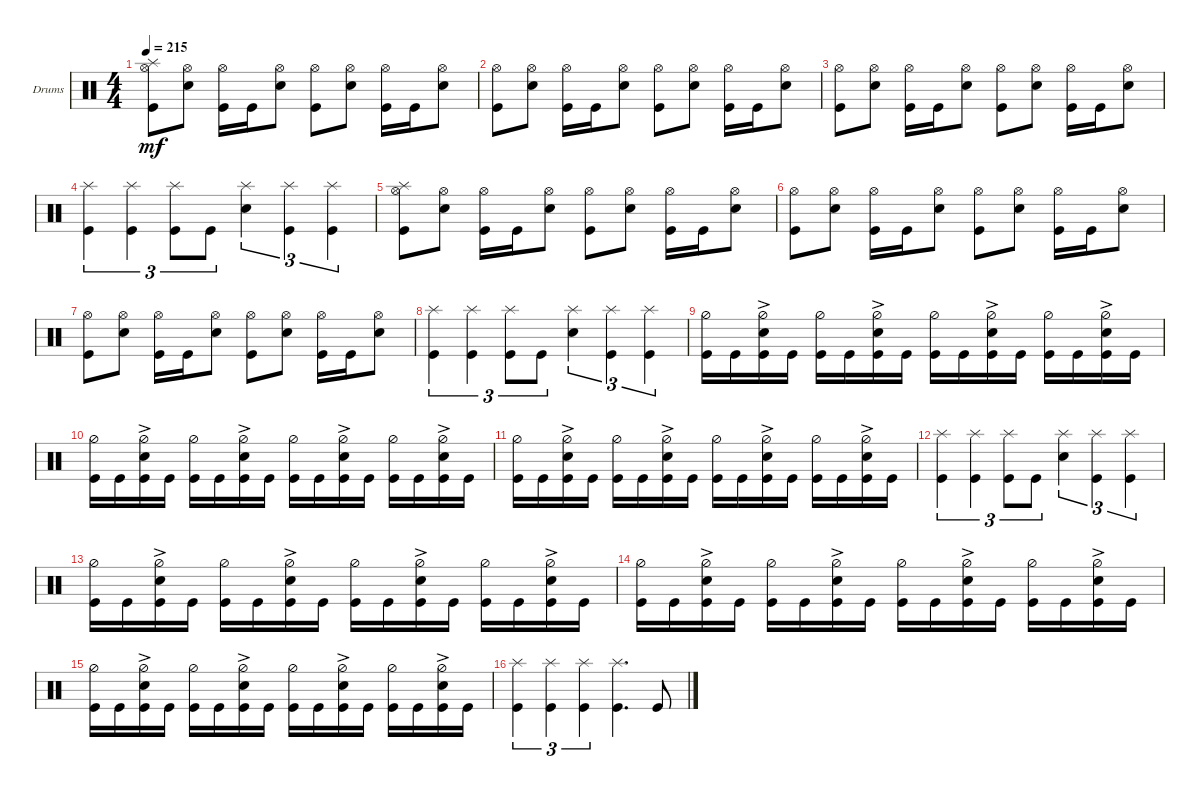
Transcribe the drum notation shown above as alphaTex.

\bracketExtendMode groupsimilarinstruments
\firstSystemTrackNameOrientation horizontal
\otherSystemsTrackNameOrientation horizontal
\track ("Drumkit" "Drums") {instrument percussion}
\staff {score}
\articulation defaults
\ts (4 4)
\tempo 215
\clef neutral
\ks c
("Kick (hit)" "Hi-Hat (open)" "Splash (hit)").8{dy mf} ("Snare (hit) 2" "Hi-Hat (open)").8 ("Kick (hit)" "Hi-Hat (open)").16 "Kick (hit)".16 ("Snare (hit) 2" "Hi-Hat (open)").8 ("Kick (hit)" "Hi-Hat (open)").8 ("Snare (hit) 2" "Hi-Hat (open)").8 ("Kick (hit)" "Hi-Hat (open)").16 "Kick (hit)".16 ("Snare (hit) 2" "Hi-Hat (open)").8 |
("Kick (hit)" "Hi-Hat (open)").8 ("Snare (hit) 2" "Hi-Hat (open)").8 ("Kick (hit)" "Hi-Hat (open)").16 "Kick (hit)".16 ("Snare (hit) 2" "Hi-Hat (open)").8 ("Kick (hit)" "Hi-Hat (open)").8 ("Snare (hit) 2" "Hi-Hat (open)").8 ("Kick (hit)" "Hi-Hat (open)").16 "Kick (hit)".16 ("Snare (hit) 2" "Hi-Hat (open)").8 |
("Kick (hit)" "Hi-Hat (open)").8 ("Snare (hit) 2" "Hi-Hat (open)").8 ("Kick (hit)" "Hi-Hat (open)").16 "Kick (hit)".16 ("Snare (hit) 2" "Hi-Hat (open)").8 ("Kick (hit)" "Hi-Hat (open)").8 ("Snare (hit) 2" "Hi-Hat (open)").8 ("Kick (hit)" "Hi-Hat (open)").16 "Kick (hit)".16 ("Snare (hit) 2" "Hi-Hat (open)").8 |
("Kick (hit)" "Splash (hit)").4{tu (3 2)} ("Kick (hit)" "Splash (hit)").4{tu (3 2)} ("Kick (hit)" "Splash (hit)").8{tu (3 2)} "Kick (hit)".8{tu (3 2)} ("Snare (hit) 2" "Splash (hit)").4{tu (3 2)} ("Kick (hit)" "Splash (hit)").4{tu (3 2)} ("Kick (hit)" "Splash (hit)").4{tu (3 2)} |
("Kick (hit)" "Hi-Hat (open)" "Splash (hit)").8 ("Snare (hit) 2" "Hi-Hat (open)").8 ("Kick (hit)" "Hi-Hat (open)").16 "Kick (hit)".16 ("Snare (hit) 2" "Hi-Hat (open)").8 ("Kick (hit)" "Hi-Hat (open)").8 ("Snare (hit) 2" "Hi-Hat (open)").8 ("Kick (hit)" "Hi-Hat (open)").16 "Kick (hit)".16 ("Snare (hit) 2" "Hi-Hat (open)").8 |
("Kick (hit)" "Hi-Hat (open)").8 ("Snare (hit) 2" "Hi-Hat (open)").8 ("Kick (hit)" "Hi-Hat (open)").16 "Kick (hit)".16 ("Snare (hit) 2" "Hi-Hat (open)").8 ("Kick (hit)" "Hi-Hat (open)").8 ("Snare (hit) 2" "Hi-Hat (open)").8 ("Kick (hit)" "Hi-Hat (open)").16 "Kick (hit)".16 ("Snare (hit) 2" "Hi-Hat (open)").8 |
("Kick (hit)" "Hi-Hat (open)").8 ("Snare (hit) 2" "Hi-Hat (open)").8 ("Kick (hit)" "Hi-Hat (open)").16 "Kick (hit)".16 ("Snare (hit) 2" "Hi-Hat (open)").8 ("Kick (hit)" "Hi-Hat (open)").8 ("Snare (hit) 2" "Hi-Hat (open)").8 ("Kick (hit)" "Hi-Hat (open)").16 "Kick (hit)".16 ("Snare (hit) 2" "Hi-Hat (open)").8 |
("Kick (hit)" "Splash (hit)").4{tu (3 2)} ("Kick (hit)" "Splash (hit)").4{tu (3 2)} ("Kick (hit)" "Splash (hit)").8{tu (3 2)} "Kick (hit)".8{tu (3 2)} ("Snare (hit) 2" "Splash (hit)").4{tu (3 2)} ("Kick (hit)" "Splash (hit)").4{tu (3 2)} ("Kick (hit)" "Splash (hit)").4{tu (3 2)} |
("Kick (hit)" "Hi-Hat (half)").16 "Kick (hit)".16 ("Snare (hit) 2"{ac} "Kick (hit)" "Hi-Hat (half)").16 "Kick (hit)".16 ("Kick (hit)" "Hi-Hat (half)").16 "Kick (hit)".16 ("Snare (hit) 2"{ac} "Kick (hit)" "Hi-Hat (half)").16 "Kick (hit)".16 ("Kick (hit)" "Hi-Hat (half)").16 "Kick (hit)".16 ("Snare (hit) 2"{ac} "Kick (hit)" "Hi-Hat (half)").16 "Kick (hit)".16 ("Kick (hit)" "Hi-Hat (half)").16 "Kick (hit)".16 ("Snare (hit) 2"{ac} "Kick (hit)" "Hi-Hat (half)").16 "Kick (hit)".16 |
("Kick (hit)" "Hi-Hat (half)").16 "Kick (hit)".16 ("Snare (hit) 2"{ac} "Kick (hit)" "Hi-Hat (half)").16 "Kick (hit)".16 ("Kick (hit)" "Hi-Hat (half)").16 "Kick (hit)".16 ("Snare (hit) 2"{ac} "Kick (hit)" "Hi-Hat (half)").16 "Kick (hit)".16 ("Kick (hit)" "Hi-Hat (half)").16 "Kick (hit)".16 ("Snare (hit) 2"{ac} "Kick (hit)" "Hi-Hat (half)").16 "Kick (hit)".16 ("Kick (hit)" "Hi-Hat (half)").16 "Kick (hit)".16 ("Snare (hit) 2"{ac} "Kick (hit)" "Hi-Hat (half)").16 "Kick (hit)".16 |
("Kick (hit)" "Hi-Hat (half)").16 "Kick (hit)".16 ("Snare (hit) 2"{ac} "Kick (hit)" "Hi-Hat (half)").16 "Kick (hit)".16 ("Kick (hit)" "Hi-Hat (half)").16 "Kick (hit)".16 ("Snare (hit) 2"{ac} "Kick (hit)" "Hi-Hat (half)").16 "Kick (hit)".16 ("Kick (hit)" "Hi-Hat (half)").16 "Kick (hit)".16 ("Snare (hit) 2"{ac} "Kick (hit)" "Hi-Hat (half)").16 "Kick (hit)".16 ("Kick (hit)" "Hi-Hat (half)").16 "Kick (hit)".16 ("Snare (hit) 2"{ac} "Kick (hit)" "Hi-Hat (half)").16 "Kick (hit)".16 |
("Kick (hit)" "Splash (hit)").4{tu (3 2)} ("Kick (hit)" "Splash (hit)").4{tu (3 2)} ("Kick (hit)" "Splash (hit)").8{tu (3 2)} "Kick (hit)".8{tu (3 2)} ("Snare (hit) 2" "Splash (hit)").4{tu (3 2)} ("Kick (hit)" "Splash (hit)").4{tu (3 2)} ("Kick (hit)" "Splash (hit)").4{tu (3 2)} |
("Kick (hit)" "Hi-Hat (half)").16 "Kick (hit)".16 ("Snare (hit) 2"{ac} "Kick (hit)" "Hi-Hat (half)").16 "Kick (hit)".16 ("Kick (hit)" "Hi-Hat (half)").16 "Kick (hit)".16 ("Snare (hit) 2"{ac} "Kick (hit)" "Hi-Hat (half)").16 "Kick (hit)".16 ("Kick (hit)" "Hi-Hat (half)").16 "Kick (hit)".16 ("Snare (hit) 2"{ac} "Kick (hit)" "Hi-Hat (half)").16 "Kick (hit)".16 ("Kick (hit)" "Hi-Hat (half)").16 "Kick (hit)".16 ("Snare (hit) 2"{ac} "Kick (hit)" "Hi-Hat (half)").16 "Kick (hit)".16 |
("Kick (hit)" "Hi-Hat (half)").16 "Kick (hit)".16 ("Snare (hit) 2"{ac} "Kick (hit)" "Hi-Hat (half)").16 "Kick (hit)".16 ("Kick (hit)" "Hi-Hat (half)").16 "Kick (hit)".16 ("Snare (hit) 2"{ac} "Kick (hit)" "Hi-Hat (half)").16 "Kick (hit)".16 ("Kick (hit)" "Hi-Hat (half)").16 "Kick (hit)".16 ("Snare (hit) 2"{ac} "Kick (hit)" "Hi-Hat (half)").16 "Kick (hit)".16 ("Kick (hit)" "Hi-Hat (half)").16 "Kick (hit)".16 ("Snare (hit) 2"{ac} "Kick (hit)" "Hi-Hat (half)").16 "Kick (hit)".16 |
("Kick (hit)" "Hi-Hat (half)").16 "Kick (hit)".16 ("Snare (hit) 2"{ac} "Kick (hit)" "Hi-Hat (half)").16 "Kick (hit)".16 ("Kick (hit)" "Hi-Hat (half)").16 "Kick (hit)".16 ("Snare (hit) 2"{ac} "Kick (hit)" "Hi-Hat (half)").16 "Kick (hit)".16 ("Kick (hit)" "Hi-Hat (half)").16 "Kick (hit)".16 ("Snare (hit) 2"{ac} "Kick (hit)" "Hi-Hat (half)").16 "Kick (hit)".16 ("Kick (hit)" "Hi-Hat (half)").16 "Kick (hit)".16 ("Snare (hit) 2"{ac} "Kick (hit)" "Hi-Hat (half)").16 "Kick (hit)".16 |
("Kick (hit)" "Splash (hit)").4{tu (3 2)} ("Kick (hit)" "Splash (hit)").4{tu (3 2)} ("Kick (hit)" "Splash (hit)").4{tu (3 2)} ("Kick (hit)" "Splash (hit)").4{d} "Kick (hit)".8
